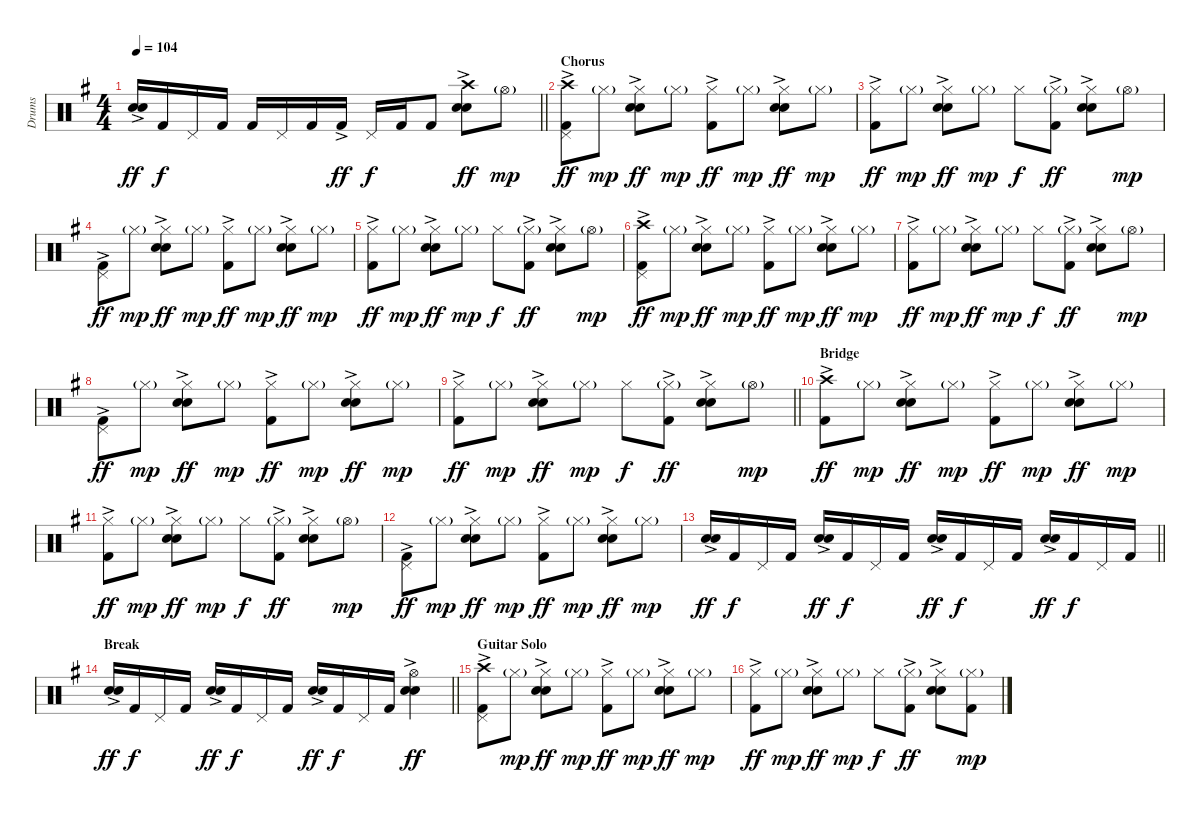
\track ("Drums" "Drums") {instrument percussion}
\staff {score}
\articulation defaults
\ts (4 4)
\tempo 104
\clef neutral
\barLineRight lightlight
\ks g
("Electric Snare (hit)"{ac} "Snare (hit) 2").16{dy ff} "Kick (hit) 2".16{dy f} "Pedal Hi-Hat (hit)".16 "Kick (hit) 2".16 "Kick (hit) 2".16 "Pedal Hi-Hat (hit)".16 "Kick (hit) 2".16 "Kick (hit) 2"{ac}.16{dy ff} "Pedal Hi-Hat (hit)".16{dy f} "Kick (hit) 2".16 "Kick (hit) 2".8 ("Crash high (hit)" "Electric Snare (hit)"{ac} "Snare (hit) 2").8{dy ff} "Hi-Hat (open)"{g}.8{dy mp} |
\section ("" "Chorus")
("Pedal Hi-Hat (hit)" "Crash high (hit)" "Kick (hit) 2"{ac}).8{dy ff} "Hi-Hat (closed)"{g}.8{dy mp} ("Hi-Hat (closed)" "Electric Snare (hit)"{ac} "Snare (hit) 2").8{dy ff} "Hi-Hat (closed)"{g}.8{dy mp} ("Hi-Hat (closed)" "Kick (hit) 2"{ac}).8{dy ff} "Hi-Hat (closed)"{g}.8{dy mp} ("Hi-Hat (closed)" "Electric Snare (hit)"{ac} "Snare (hit) 2").8{dy ff} "Hi-Hat (closed)"{g}.8{dy mp} |
("Hi-Hat (closed)" "Kick (hit) 2"{ac}).8{dy ff} "Hi-Hat (closed)"{g}.8{dy mp} ("Hi-Hat (closed)" "Electric Snare (hit)"{ac} "Snare (hit) 2").8{dy ff} "Hi-Hat (closed)"{g}.8{dy mp} "Hi-Hat (closed)".8{dy f} ("Hi-Hat (closed)"{g} "Kick (hit) 2"{ac}).8{dy ff} ("Hi-Hat (closed)" "Electric Snare (hit)"{ac} "Snare (hit) 2").8 "Hi-Hat (open)"{g}.8{dy mp} |
("Pedal Hi-Hat (hit)" "Kick (hit) 2"{ac}).8{dy ff} "Hi-Hat (closed)"{g}.8{dy mp} ("Hi-Hat (closed)" "Electric Snare (hit)"{ac} "Snare (hit) 2").8{dy ff} "Hi-Hat (closed)"{g}.8{dy mp} ("Hi-Hat (closed)" "Kick (hit) 2"{ac}).8{dy ff} "Hi-Hat (closed)"{g}.8{dy mp} ("Hi-Hat (closed)" "Electric Snare (hit)"{ac} "Snare (hit) 2").8{dy ff} "Hi-Hat (closed)"{g}.8{dy mp} |
("Hi-Hat (closed)" "Kick (hit) 2"{ac}).8{dy ff} "Hi-Hat (closed)"{g}.8{dy mp} ("Hi-Hat (closed)" "Electric Snare (hit)"{ac} "Snare (hit) 2").8{dy ff} "Hi-Hat (closed)"{g}.8{dy mp} "Hi-Hat (closed)".8{dy f} ("Hi-Hat (closed)"{g} "Kick (hit) 2"{ac}).8{dy ff} ("Hi-Hat (closed)" "Electric Snare (hit)"{ac} "Snare (hit) 2").8 "Hi-Hat (open)"{g}.8{dy mp} |
("Pedal Hi-Hat (hit)" "Crash high (hit)" "Kick (hit) 2"{ac}).8{dy ff} "Hi-Hat (closed)"{g}.8{dy mp} ("Hi-Hat (closed)" "Electric Snare (hit)"{ac} "Snare (hit) 2").8{dy ff} "Hi-Hat (closed)"{g}.8{dy mp} ("Hi-Hat (closed)" "Kick (hit) 2"{ac}).8{dy ff} "Hi-Hat (closed)"{g}.8{dy mp} ("Hi-Hat (closed)" "Electric Snare (hit)"{ac} "Snare (hit) 2").8{dy ff} "Hi-Hat (closed)"{g}.8{dy mp} |
("Hi-Hat (closed)" "Kick (hit) 2"{ac}).8{dy ff} "Hi-Hat (closed)"{g}.8{dy mp} ("Hi-Hat (closed)" "Electric Snare (hit)"{ac} "Snare (hit) 2").8{dy ff} "Hi-Hat (closed)"{g}.8{dy mp} "Hi-Hat (closed)".8{dy f} ("Hi-Hat (closed)"{g} "Kick (hit) 2"{ac}).8{dy ff} ("Hi-Hat (closed)" "Electric Snare (hit)"{ac} "Snare (hit) 2").8 "Hi-Hat (open)"{g}.8{dy mp} |
("Pedal Hi-Hat (hit)" "Kick (hit) 2"{ac}).8{dy ff} "Hi-Hat (closed)"{g}.8{dy mp} ("Hi-Hat (closed)" "Electric Snare (hit)"{ac} "Snare (hit) 2").8{dy ff} "Hi-Hat (closed)"{g}.8{dy mp} ("Hi-Hat (closed)" "Kick (hit) 2"{ac}).8{dy ff} "Hi-Hat (closed)"{g}.8{dy mp} ("Hi-Hat (closed)" "Electric Snare (hit)"{ac} "Snare (hit) 2").8{dy ff} "Hi-Hat (closed)"{g}.8{dy mp} |
\barLineRight lightlight
("Hi-Hat (closed)" "Kick (hit) 2"{ac}).8{dy ff} "Hi-Hat (closed)"{g}.8{dy mp} ("Hi-Hat (closed)" "Electric Snare (hit)"{ac} "Snare (hit) 2").8{dy ff} "Hi-Hat (closed)"{g}.8{dy mp} "Hi-Hat (closed)".8{dy f} ("Hi-Hat (closed)"{g} "Kick (hit) 2"{ac}).8{dy ff} ("Hi-Hat (closed)" "Electric Snare (hit)"{ac} "Snare (hit) 2").8 "Hi-Hat (open)"{g}.8{dy mp} |
\section ("" "Bridge")
("Crash high (hit)" "Kick (hit) 2"{ac}).8{dy ff} "Hi-Hat (closed)"{g}.8{dy mp} ("Hi-Hat (closed)" "Electric Snare (hit)"{ac} "Snare (hit) 2").8{dy ff} "Hi-Hat (closed)"{g}.8{dy mp} ("Hi-Hat (closed)" "Kick (hit) 2"{ac}).8{dy ff} "Hi-Hat (closed)"{g}.8{dy mp} ("Hi-Hat (closed)" "Electric Snare (hit)"{ac} "Snare (hit) 2").8{dy ff} "Hi-Hat (closed)"{g}.8{dy mp} |
("Hi-Hat (closed)" "Kick (hit) 2"{ac}).8{dy ff} "Hi-Hat (closed)"{g}.8{dy mp} ("Hi-Hat (closed)" "Electric Snare (hit)"{ac} "Snare (hit) 2").8{dy ff} "Hi-Hat (closed)"{g}.8{dy mp} "Hi-Hat (closed)".8{dy f} ("Hi-Hat (closed)"{g} "Kick (hit) 2"{ac}).8{dy ff} ("Hi-Hat (closed)" "Electric Snare (hit)"{ac} "Snare (hit) 2").8 "Hi-Hat (open)"{g}.8{dy mp} |
("Pedal Hi-Hat (hit)" "Kick (hit) 2"{ac}).8{dy ff} "Hi-Hat (closed)"{g}.8{dy mp} ("Hi-Hat (closed)" "Electric Snare (hit)"{ac} "Snare (hit) 2").8{dy ff} "Hi-Hat (closed)"{g}.8{dy mp} ("Hi-Hat (closed)" "Kick (hit) 2"{ac}).8{dy ff} "Hi-Hat (closed)"{g}.8{dy mp} ("Hi-Hat (closed)" "Electric Snare (hit)"{ac} "Snare (hit) 2").8{dy ff} "Hi-Hat (closed)"{g}.8{dy mp} |
\barLineRight lightlight
("Electric Snare (hit)"{ac} "Snare (hit) 2").16{dy ff} "Kick (hit) 2".16{dy f} "Pedal Hi-Hat (hit)".16 "Kick (hit) 2".16 ("Electric Snare (hit)"{ac} "Snare (hit) 2").16{dy ff} "Kick (hit) 2".16{dy f} "Pedal Hi-Hat (hit)".16 "Kick (hit) 2".16 ("Electric Snare (hit)"{ac} "Snare (hit) 2").16{dy ff} "Kick (hit) 2".16{dy f} "Pedal Hi-Hat (hit)".16 "Kick (hit) 2".16 ("Electric Snare (hit)"{ac} "Snare (hit) 2").16{dy ff} "Kick (hit) 2".16{dy f} "Pedal Hi-Hat (hit)".16 "Kick (hit) 2".16 |
\section ("" "Break")
\barLineRight lightlight
("Electric Snare (hit)"{ac} "Snare (hit) 2").16{dy ff} "Kick (hit) 2".16{dy f} "Pedal Hi-Hat (hit)".16 "Kick (hit) 2".16 ("Electric Snare (hit)"{ac} "Snare (hit) 2").16{dy ff} "Kick (hit) 2".16{dy f} "Pedal Hi-Hat (hit)".16 "Kick (hit) 2".16 ("Electric Snare (hit)"{ac} "Snare (hit) 2").16{dy ff} "Kick (hit) 2".16{dy f} "Pedal Hi-Hat (hit)".16 "Kick (hit) 2".16 ("Hi-Hat (open)" "Electric Snare (hit)"{ac} "Snare (hit) 2").4{dy ff} |
\section ("" "Guitar Solo")
("Pedal Hi-Hat (hit)" "Crash high (hit)" "Kick (hit) 2"{ac}).8 "Hi-Hat (closed)"{g}.8{dy mp} ("Hi-Hat (closed)" "Electric Snare (hit)"{ac} "Snare (hit) 2").8{dy ff} "Hi-Hat (closed)"{g}.8{dy mp} ("Hi-Hat (closed)" "Kick (hit) 2"{ac}).8{dy ff} "Hi-Hat (closed)"{g}.8{dy mp} ("Hi-Hat (closed)" "Electric Snare (hit)"{ac} "Snare (hit) 2").8{dy ff} "Hi-Hat (closed)"{g}.8{dy mp} |
("Hi-Hat (closed)" "Kick (hit) 2"{ac}).8{dy ff} "Hi-Hat (closed)"{g}.8{dy mp} ("Hi-Hat (closed)" "Electric Snare (hit)"{ac} "Snare (hit) 2").8{dy ff} "Hi-Hat (closed)"{g}.8{dy mp} "Hi-Hat (closed)".8{dy f} ("Hi-Hat (closed)"{g} "Kick (hit) 2"{ac}).8{dy ff} ("Hi-Hat (closed)" "Electric Snare (hit)"{ac} "Snare (hit) 2").8 ("Hi-Hat (closed)"{g} "Kick (hit) 2").8{dy mp}
